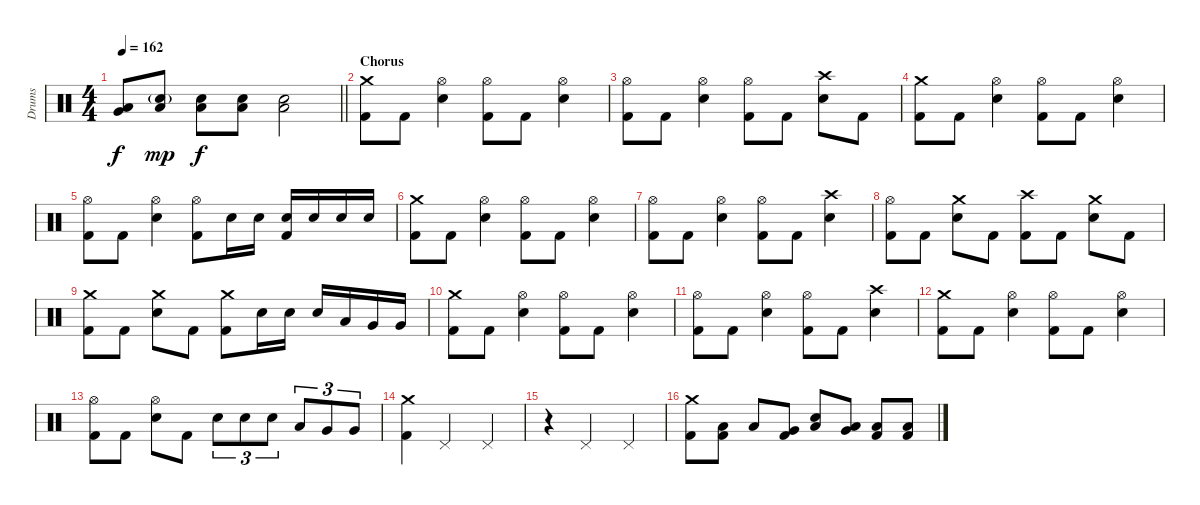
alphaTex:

\track ("Drums" "Drums") {instrument percussion}
\staff {score}
\articulation defaults
\ts (4 4)
\tempo 162
\clef neutral
\barLineRight lightlight
\ks c
("Low Tom (hit)" "Very Low Tom (hit)").8{dy f} ("Electric Snare (hit)"{g} "Low Tom (hit)").8{dy mp} ("Electric Snare (hit)" "Low Tom (hit)").8{dy f} ("Electric Snare (hit)" "Low Tom (hit)").8 ("Electric Snare (hit)" "Low Tom (hit)").2 |
\section ("" "Chorus")
("Crash medium (hit)" "Kick (hit) 2").8 "Kick (hit) 2".8 ("Hi-Hat (open)" "Electric Snare (hit)").4 ("Hi-Hat (open)" "Kick (hit) 2").8 "Kick (hit) 2".8 ("Hi-Hat (open)" "Electric Snare (hit)").4 |
("Hi-Hat (open)" "Kick (hit) 2").8 "Kick (hit) 2".8 ("Hi-Hat (open)" "Electric Snare (hit)").4 ("Hi-Hat (open)" "Kick (hit) 2").8 "Kick (hit) 2".8 ("Crash high (hit)" "Electric Snare (hit)").8 "Kick (hit) 2".8 |
("Crash medium (hit)" "Kick (hit) 2").8 "Kick (hit) 2".8 ("Hi-Hat (open)" "Electric Snare (hit)").4 ("Hi-Hat (open)" "Kick (hit) 2").8 "Kick (hit) 2".8 ("Hi-Hat (open)" "Electric Snare (hit)").4 |
("Hi-Hat (open)" "Kick (hit) 2").8 "Kick (hit) 2".8 ("Hi-Hat (open)" "Electric Snare (hit)").4 ("Hi-Hat (open)" "Kick (hit) 2").8 "Electric Snare (hit)".16 "Electric Snare (hit)".16 ("Electric Snare (hit)" "Kick (hit) 2").16 "Electric Snare (hit)".16 "Electric Snare (hit)".16 "Electric Snare (hit)".16 |
("Crash medium (hit)" "Kick (hit) 2").8 "Kick (hit) 2".8 ("Hi-Hat (open)" "Electric Snare (hit)").4 ("Hi-Hat (open)" "Kick (hit) 2").8 "Kick (hit) 2".8 ("Hi-Hat (open)" "Electric Snare (hit)").4 |
("Hi-Hat (open)" "Kick (hit) 2").8 "Kick (hit) 2".8 ("Hi-Hat (open)" "Electric Snare (hit)").4 ("Hi-Hat (open)" "Kick (hit) 2").8 "Kick (hit) 2".8 ("Crash high (hit)" "Electric Snare (hit)").4 |
("Hi-Hat (open)" "Kick (hit) 2").8 "Kick (hit) 2".8 ("Crash medium (hit)" "Electric Snare (hit)").8 "Kick (hit) 2".8 ("Crash high (hit)" "Kick (hit) 2").8 "Kick (hit) 2".8 ("Crash medium (hit)" "Electric Snare (hit)").8 "Kick (hit) 2".8 |
("Crash medium (hit)" "Kick (hit) 2").8 "Kick (hit) 2".8 ("Crash medium (hit)" "Electric Snare (hit)").8 "Kick (hit) 2".8 ("Crash medium (hit)" "Kick (hit) 2").8 "Electric Snare (hit)".16 "Electric Snare (hit)".16 "Electric Snare (hit)".16 "Low Tom (hit)".16 "Very Low Tom (hit)".16 "Very Low Tom (hit)".16 |
("Crash medium (hit)" "Kick (hit) 2").8 "Kick (hit) 2".8 ("Hi-Hat (open)" "Electric Snare (hit)").4 ("Hi-Hat (open)" "Kick (hit) 2").8 "Kick (hit) 2".8 ("Hi-Hat (open)" "Electric Snare (hit)").4 |
("Hi-Hat (open)" "Kick (hit) 2").8 "Kick (hit) 2".8 ("Hi-Hat (open)" "Electric Snare (hit)").4 ("Hi-Hat (open)" "Kick (hit) 2").8 "Kick (hit) 2".8 ("Crash high (hit)" "Electric Snare (hit)").4 |
("Crash medium (hit)" "Kick (hit) 2").8 "Kick (hit) 2".8 ("Hi-Hat (open)" "Electric Snare (hit)").4 ("Hi-Hat (open)" "Kick (hit) 2").8 "Kick (hit) 2".8 ("Hi-Hat (open)" "Electric Snare (hit)").4 |
("Hi-Hat (open)" "Kick (hit) 2").8 "Kick (hit) 2".8 ("Hi-Hat (open)" "Electric Snare (hit)").8 "Kick (hit) 2".8 "Electric Snare (hit)".8{tu (3 2)} "Electric Snare (hit)".8{tu (3 2)} "Electric Snare (hit)".8{tu (3 2)} "Low Tom (hit)".8{tu (3 2)} "Very Low Tom (hit)".8{tu (3 2)} "Very Low Tom (hit)".8{tu (3 2)} |
("Crash medium (hit)" "Kick (hit) 2").4 "Pedal Hi-Hat (hit)".2 "Pedal Hi-Hat (hit)".4 |
r.4 "Pedal Hi-Hat (hit)".2 "Pedal Hi-Hat (hit)".4 |
("Crash medium (hit)" "Kick (hit) 2").8 ("Low Tom (hit)" "Kick (hit) 2").8 "Low Floor Tom (hit)".8 ("Very Low Tom (hit)" "Kick (hit) 2").8 ("Low Floor Tom (hit)" "Electric Snare (hit)").8 ("Very Low Tom (hit)" "Low Floor Tom (hit)").8 ("Low Floor Tom (hit)" "Kick (hit) 2").8 ("Low Tom (hit)" "Kick (hit) 2").8
